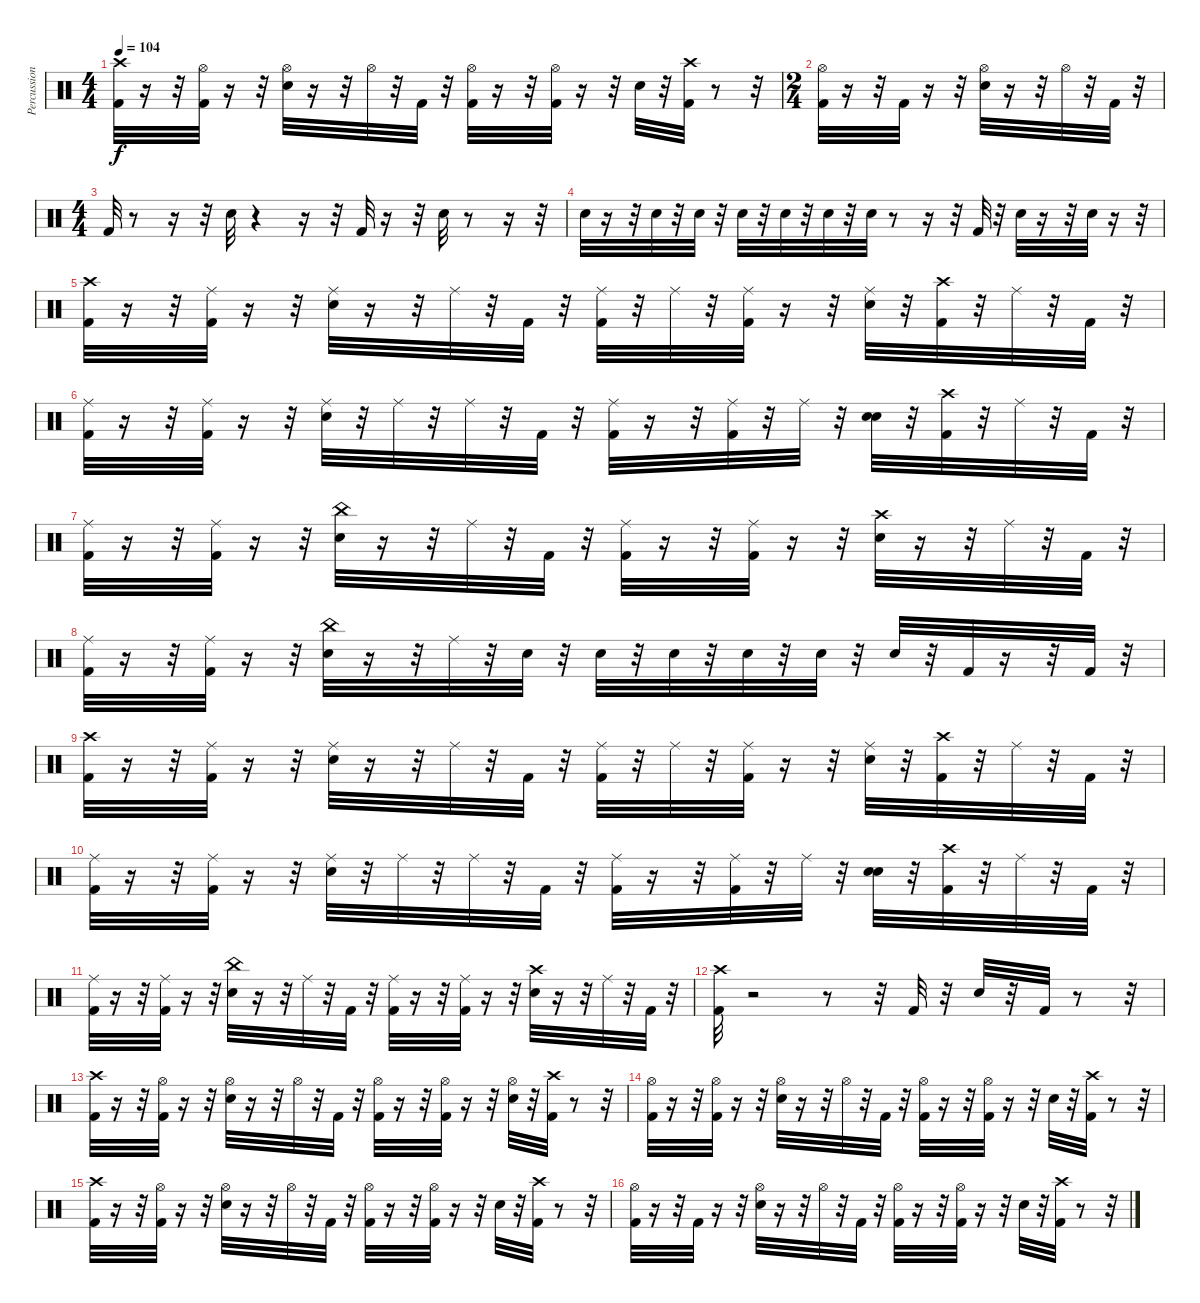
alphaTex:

\track ("Percussions" "Percussion") {instrument percussion}
\staff {score}
\articulation defaults
\ts (4 4)
\tempo 104
\clef neutral
\ks c
("Crash high (hit)" "Kick (hit) 2").32{dy f} r.16 r.32 ("Kick (hit) 2" "Hi-Hat (open)").32 r.16 r.32 ("Snare (hit) 2" "Hi-Hat (open)").32 r.16 r.32 "Hi-Hat (open)".32 r.32 "Kick (hit) 2".32 r.32 ("Kick (hit) 2" "Hi-Hat (open)").32 r.16 r.32 ("Hi-Hat (open)" "Kick (hit) 2").32 r.16 r.32 "Snare (hit) 2".32 r.32 ("Crash high (hit)" "Kick (hit) 2").32 r.8 r.32 |
\ts (2 4)
("Kick (hit) 2" "Hi-Hat (open)").32 r.16 r.32 "Kick (hit) 2".32 r.16 r.32 ("Snare (hit) 2" "Hi-Hat (open)").32 r.16 r.32 "Hi-Hat (open)".32 r.32 "Kick (hit) 2".32 r.32 |
\ts (4 4)
"Kick (hit) 2".32 r.8 r.16 r.32 "Snare (hit) 2".32 r.4 r.16 r.32 "Kick (hit) 2".32 r.16 r.32 "Snare (hit) 2".32 r.8 r.16 r.32 |
"Snare (hit) 2".32 r.16 r.32 "Snare (hit) 2".32 r.32 "Snare (hit) 2".32 r.32 "Snare (hit) 2".32 r.32 "Snare (hit) 2".32 r.32 "Snare (hit) 2".32 r.32 "Snare (hit) 2".32 r.8 r.16 r.32 "Kick (hit) 2".32 r.32 "Snare (hit) 2".32 r.16 r.32 "Snare (hit) 2".32 r.16 r.32 |
("Crash high (hit)" "Kick (hit) 2").32 r.16 r.32 ("Kick (hit) 2" "Ride (middle)").32 r.16 r.32 ("Ride (middle)" "Snare (hit) 2").32 r.16 r.32 "Ride (middle)".32 r.32 "Kick (hit) 2".32 r.32 ("Kick (hit) 2" "Ride (middle)").32 r.32 "Ride (middle)".32 r.32 ("Ride (middle)" "Kick (hit) 2").32 r.16 r.32 ("Snare (hit) 2" "Ride (middle)").32 r.32 ("Crash high (hit)" "Kick (hit) 2").32 r.32 "Ride (middle)".32 r.32 "Kick (hit) 2".32 r.32 |
("Kick (hit) 2" "Ride (middle)").32 r.16 r.32 ("Kick (hit) 2" "Ride (middle)").32 r.16 r.32 ("Snare (hit) 2" "Ride (middle)").32 r.32 "Ride (middle)".32 r.32 "Ride (middle)".32 r.32 "Kick (hit) 2".32 r.32 ("Ride (middle)" "Kick (hit) 2").32 r.16 r.32 ("Kick (hit) 2" "Ride (middle)").32 r.32 "Ride (middle)".32 r.32 ("Electric Snare (hit)" "Snare (hit) 2").32 r.32 ("Kick (hit) 2" "Crash high (hit)").32 r.32 "Ride (middle)".32 r.32 "Kick (hit) 2".32 r.32 |
("Kick (hit) 2" "Ride (middle)").32 r.16 r.32 ("Kick (hit) 2" "Ride (middle)").32 r.16 r.32 ("China (hit)" "Snare (hit) 2").32 r.16 r.32 "Ride (middle)".32 r.32 "Kick (hit) 2".32 r.32 ("Kick (hit) 2" "Ride (middle)").32 r.16 r.32 ("Ride (middle)" "Kick (hit) 2").32 r.16 r.32 ("Snare (hit) 2" "Crash high (hit)").32 r.16 r.32 "Ride (middle)".32 r.32 "Kick (hit) 2".32 r.32 |
("Ride (middle)" "Kick (hit) 2").32 r.16 r.32 ("Kick (hit) 2" "Ride (middle)").32 r.16 r.32 ("Snare (hit) 2" "China (hit)").32 r.16 r.32 "Ride (middle)".32 r.32 "Snare (hit) 2".32 r.32 "Snare (hit) 2".32 r.32 "Snare (hit) 2".32 r.32 "Snare (hit) 2".32 r.32 "Snare (hit) 2".32 r.32 "Snare (hit) 2".32 r.32 "Kick (hit) 2".32 r.16 r.32 "Kick (hit) 2".32 r.32 |
("Crash high (hit)" "Kick (hit) 2").32 r.16 r.32 ("Kick (hit) 2" "Ride (middle)").32 r.16 r.32 ("Ride (middle)" "Snare (hit) 2").32 r.16 r.32 "Ride (middle)".32 r.32 "Kick (hit) 2".32 r.32 ("Kick (hit) 2" "Ride (middle)").32 r.32 "Ride (middle)".32 r.32 ("Ride (middle)" "Kick (hit) 2").32 r.16 r.32 ("Snare (hit) 2" "Ride (middle)").32 r.32 ("Crash high (hit)" "Kick (hit) 2").32 r.32 "Ride (middle)".32 r.32 "Kick (hit) 2".32 r.32 |
("Kick (hit) 2" "Ride (middle)").32 r.16 r.32 ("Kick (hit) 2" "Ride (middle)").32 r.16 r.32 ("Snare (hit) 2" "Ride (middle)").32 r.32 "Ride (middle)".32 r.32 "Ride (middle)".32 r.32 "Kick (hit) 2".32 r.32 ("Ride (middle)" "Kick (hit) 2").32 r.16 r.32 ("Kick (hit) 2" "Ride (middle)").32 r.32 "Ride (middle)".32 r.32 ("Electric Snare (hit)" "Snare (hit) 2").32 r.32 ("Kick (hit) 2" "Crash high (hit)").32 r.32 "Ride (middle)".32 r.32 "Kick (hit) 2".32 r.32 |
("Kick (hit) 2" "Ride (middle)").32 r.16 r.32 ("Kick (hit) 2" "Ride (middle)").32 r.16 r.32 ("China (hit)" "Snare (hit) 2").32 r.16 r.32 "Ride (middle)".32 r.32 "Kick (hit) 2".32 r.32 ("Kick (hit) 2" "Ride (middle)").32 r.16 r.32 ("Ride (middle)" "Kick (hit) 2").32 r.16 r.32 ("Snare (hit) 2" "Crash high (hit)").32 r.16 r.32 "Ride (middle)".32 r.32 "Kick (hit) 2".32 r.32 |
("Crash high (hit)" "Kick (hit) 2").32 r.2 r.8 r.32 "Kick (hit) 2".32 r.32 "Snare (hit) 2".32 r.32 "Kick (hit) 2".32 r.8 r.32 |
("Crash high (hit)" "Kick (hit) 2").32 r.16 r.32 ("Hi-Hat (open)" "Kick (hit) 2").32 r.16 r.32 ("Hi-Hat (open)" "Snare (hit) 2").32 r.16 r.32 "Hi-Hat (open)".32 r.32 "Kick (hit) 2".32 r.32 ("Kick (hit) 2" "Hi-Hat (open)").32 r.16 r.32 ("Kick (hit) 2" "Hi-Hat (open)").32 r.16 r.32 ("Hi-Hat (open)" "Snare (hit) 2").32 r.32 ("Kick (hit) 2" "Crash high (hit)").32 r.8 r.32 |
("Hi-Hat (open)" "Kick (hit) 2").32 r.16 r.32 ("Kick (hit) 2" "Hi-Hat (open)").32 r.16 r.32 ("Hi-Hat (open)" "Snare (hit) 2").32 r.16 r.32 "Hi-Hat (open)".32 r.32 "Kick (hit) 2".32 r.32 ("Kick (hit) 2" "Hi-Hat (open)").32 r.16 r.32 ("Kick (hit) 2" "Hi-Hat (open)").32 r.16 r.32 "Snare (hit) 2".32 r.32 ("Kick (hit) 2" "Crash high (hit)").32 r.8 r.32 |
("Crash high (hit)" "Kick (hit) 2").32 r.16 r.32 ("Kick (hit) 2" "Hi-Hat (open)").32 r.16 r.32 ("Snare (hit) 2" "Hi-Hat (open)").32 r.16 r.32 "Hi-Hat (open)".32 r.32 "Kick (hit) 2".32 r.32 ("Kick (hit) 2" "Hi-Hat (open)").32 r.16 r.32 ("Hi-Hat (open)" "Kick (hit) 2").32 r.16 r.32 "Snare (hit) 2".32 r.32 ("Crash high (hit)" "Kick (hit) 2").32 r.8 r.32 |
("Kick (hit) 2" "Hi-Hat (open)").32 r.16 r.32 "Kick (hit) 2".32 r.16 r.32 ("Snare (hit) 2" "Hi-Hat (open)").32 r.16 r.32 "Hi-Hat (open)".32 r.32 "Kick (hit) 2".32 r.32 ("Hi-Hat (open)" "Kick (hit) 2").32 r.16 r.32 ("Kick (hit) 2" "Hi-Hat (open)").32 r.16 r.32 "Snare (hit) 2".32 r.32 ("Kick (hit) 2" "Crash high (hit)").32 r.8 r.32
